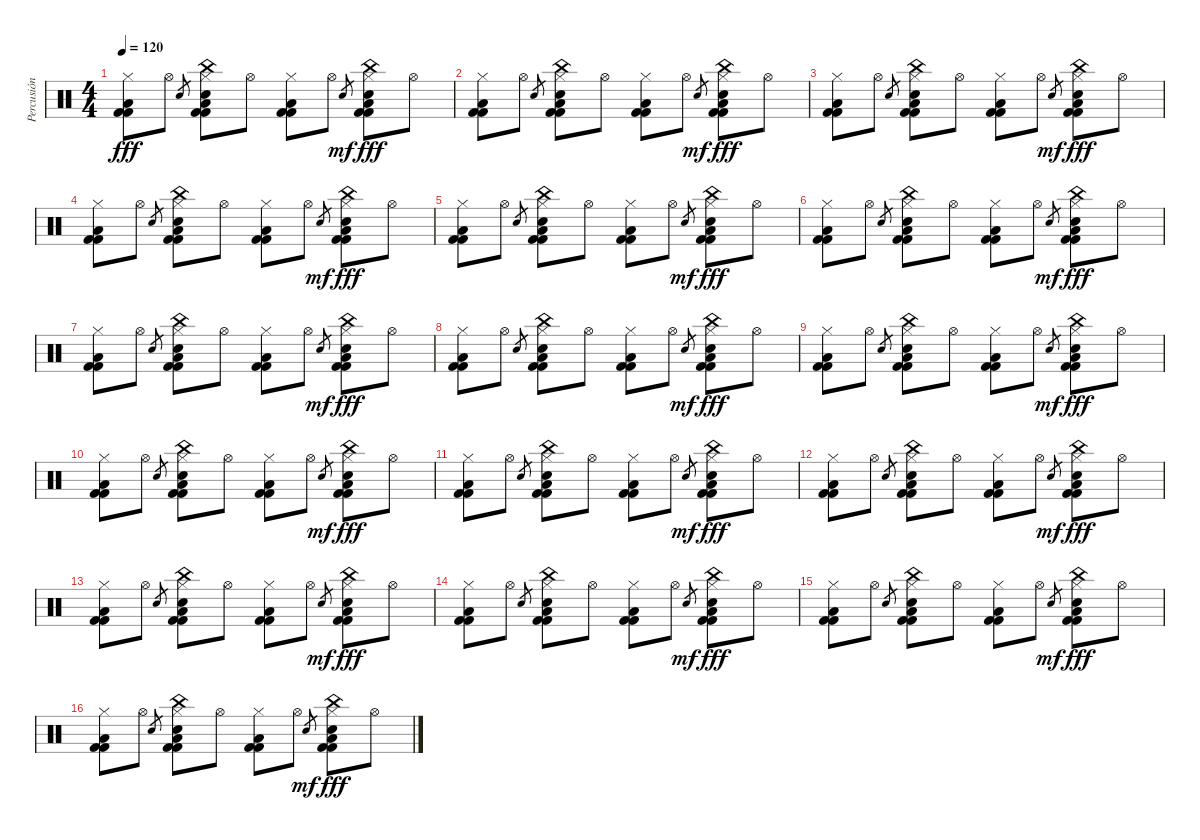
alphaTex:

\track ("Percusión II" "Percusión ") {instrument percussion}
\staff {score}
\articulation defaults
\ts (4 4)
\tempo 120
\clef neutral
\ks c
("Kick (hit) 2" "Hi-Hat (closed)" "Low Floor Tom (hit)" "Kick (hit) 2").8{dy fff} "Hi-Hat (open)".8 "Hand Clap (hit)".8{gr} ("Kick (hit) 2" "Hi-Hat (closed)" "Electric Snare (hit)" "China (hit)" "Low Floor Tom (hit)" "Kick (hit) 2").8 "Hi-Hat (open)".8 ("Kick (hit) 2" "Hi-Hat (closed)" "Low Floor Tom (hit)" "Kick (hit) 2").8 "Hi-Hat (open)".8 "Hand Clap (hit)".8{gr dy mf} ("Kick (hit) 2" "Hi-Hat (closed)" "Electric Snare (hit)" "China (hit)" "Low Floor Tom (hit)" "Kick (hit) 2").8{dy fff} "Hi-Hat (open)".8 |
("Kick (hit) 2" "Hi-Hat (closed)" "Low Floor Tom (hit)" "Kick (hit) 2").8 "Hi-Hat (open)".8 "Hand Clap (hit)".8{gr} ("Kick (hit) 2" "Hi-Hat (closed)" "Electric Snare (hit)" "China (hit)" "Low Floor Tom (hit)" "Kick (hit) 2").8 "Hi-Hat (open)".8 ("Kick (hit) 2" "Hi-Hat (closed)" "Low Floor Tom (hit)" "Kick (hit) 2").8 "Hi-Hat (open)".8 "Hand Clap (hit)".8{gr dy mf} ("Kick (hit) 2" "Hi-Hat (closed)" "Electric Snare (hit)" "China (hit)" "Low Floor Tom (hit)" "Kick (hit) 2").8{dy fff} "Hi-Hat (open)".8 |
("Kick (hit) 2" "Hi-Hat (closed)" "Low Floor Tom (hit)" "Kick (hit) 2").8 "Hi-Hat (open)".8 "Hand Clap (hit)".8{gr} ("Kick (hit) 2" "Hi-Hat (closed)" "Electric Snare (hit)" "China (hit)" "Low Floor Tom (hit)" "Kick (hit) 2").8 "Hi-Hat (open)".8 ("Kick (hit) 2" "Hi-Hat (closed)" "Low Floor Tom (hit)" "Kick (hit) 2").8 "Hi-Hat (open)".8 "Hand Clap (hit)".8{gr dy mf} ("Kick (hit) 2" "Hi-Hat (closed)" "Electric Snare (hit)" "China (hit)" "Low Floor Tom (hit)" "Kick (hit) 2").8{dy fff} "Hi-Hat (open)".8 |
("Kick (hit) 2" "Hi-Hat (closed)" "Low Floor Tom (hit)" "Kick (hit) 2").8 "Hi-Hat (open)".8 "Hand Clap (hit)".8{gr} ("Kick (hit) 2" "Hi-Hat (closed)" "Electric Snare (hit)" "China (hit)" "Low Floor Tom (hit)" "Kick (hit) 2").8 "Hi-Hat (open)".8 ("Kick (hit) 2" "Hi-Hat (closed)" "Low Floor Tom (hit)" "Kick (hit) 2").8 "Hi-Hat (open)".8 "Hand Clap (hit)".8{gr dy mf} ("Kick (hit) 2" "Hi-Hat (closed)" "Electric Snare (hit)" "China (hit)" "Low Floor Tom (hit)" "Kick (hit) 2").8{dy fff} "Hi-Hat (open)".8 |
("Kick (hit) 2" "Hi-Hat (closed)" "Low Floor Tom (hit)" "Kick (hit) 2").8 "Hi-Hat (open)".8 "Hand Clap (hit)".8{gr} ("Kick (hit) 2" "Hi-Hat (closed)" "Electric Snare (hit)" "China (hit)" "Low Floor Tom (hit)" "Kick (hit) 2").8 "Hi-Hat (open)".8 ("Kick (hit) 2" "Hi-Hat (closed)" "Low Floor Tom (hit)" "Kick (hit) 2").8 "Hi-Hat (open)".8 "Hand Clap (hit)".8{gr dy mf} ("Kick (hit) 2" "Hi-Hat (closed)" "Electric Snare (hit)" "China (hit)" "Low Floor Tom (hit)" "Kick (hit) 2").8{dy fff} "Hi-Hat (open)".8 |
("Kick (hit) 2" "Hi-Hat (closed)" "Low Floor Tom (hit)" "Kick (hit) 2").8 "Hi-Hat (open)".8 "Hand Clap (hit)".8{gr} ("Kick (hit) 2" "Hi-Hat (closed)" "Electric Snare (hit)" "China (hit)" "Low Floor Tom (hit)" "Kick (hit) 2").8 "Hi-Hat (open)".8 ("Kick (hit) 2" "Hi-Hat (closed)" "Low Floor Tom (hit)" "Kick (hit) 2").8 "Hi-Hat (open)".8 "Hand Clap (hit)".8{gr dy mf} ("Kick (hit) 2" "Hi-Hat (closed)" "Electric Snare (hit)" "China (hit)" "Low Floor Tom (hit)" "Kick (hit) 2").8{dy fff} "Hi-Hat (open)".8 |
("Kick (hit) 2" "Hi-Hat (closed)" "Low Floor Tom (hit)" "Kick (hit) 2").8 "Hi-Hat (open)".8 "Hand Clap (hit)".8{gr} ("Kick (hit) 2" "Hi-Hat (closed)" "Electric Snare (hit)" "China (hit)" "Low Floor Tom (hit)" "Kick (hit) 2").8 "Hi-Hat (open)".8 ("Kick (hit) 2" "Hi-Hat (closed)" "Low Floor Tom (hit)" "Kick (hit) 2").8 "Hi-Hat (open)".8 "Hand Clap (hit)".8{gr dy mf} ("Kick (hit) 2" "Hi-Hat (closed)" "Electric Snare (hit)" "China (hit)" "Low Floor Tom (hit)" "Kick (hit) 2").8{dy fff} "Hi-Hat (open)".8 |
("Kick (hit) 2" "Hi-Hat (closed)" "Low Floor Tom (hit)" "Kick (hit) 2").8 "Hi-Hat (open)".8 "Hand Clap (hit)".8{gr} ("Kick (hit) 2" "Hi-Hat (closed)" "Electric Snare (hit)" "China (hit)" "Low Floor Tom (hit)" "Kick (hit) 2").8 "Hi-Hat (open)".8 ("Kick (hit) 2" "Hi-Hat (closed)" "Low Floor Tom (hit)" "Kick (hit) 2").8 "Hi-Hat (open)".8 "Hand Clap (hit)".8{gr dy mf} ("Kick (hit) 2" "Hi-Hat (closed)" "Electric Snare (hit)" "China (hit)" "Low Floor Tom (hit)" "Kick (hit) 2").8{dy fff} "Hi-Hat (open)".8 |
("Kick (hit) 2" "Hi-Hat (closed)" "Low Floor Tom (hit)" "Kick (hit) 2").8 "Hi-Hat (open)".8 "Hand Clap (hit)".8{gr} ("Kick (hit) 2" "Hi-Hat (closed)" "Electric Snare (hit)" "China (hit)" "Low Floor Tom (hit)" "Kick (hit) 2").8 "Hi-Hat (open)".8 ("Kick (hit) 2" "Hi-Hat (closed)" "Low Floor Tom (hit)" "Kick (hit) 2").8 "Hi-Hat (open)".8 "Hand Clap (hit)".8{gr dy mf} ("Kick (hit) 2" "Hi-Hat (closed)" "Electric Snare (hit)" "China (hit)" "Low Floor Tom (hit)" "Kick (hit) 2").8{dy fff} "Hi-Hat (open)".8 |
("Kick (hit) 2" "Hi-Hat (closed)" "Low Floor Tom (hit)" "Kick (hit) 2").8 "Hi-Hat (open)".8 "Hand Clap (hit)".8{gr} ("Kick (hit) 2" "Hi-Hat (closed)" "Electric Snare (hit)" "China (hit)" "Low Floor Tom (hit)" "Kick (hit) 2").8 "Hi-Hat (open)".8 ("Kick (hit) 2" "Hi-Hat (closed)" "Low Floor Tom (hit)" "Kick (hit) 2").8 "Hi-Hat (open)".8 "Hand Clap (hit)".8{gr dy mf} ("Kick (hit) 2" "Hi-Hat (closed)" "Electric Snare (hit)" "China (hit)" "Low Floor Tom (hit)" "Kick (hit) 2").8{dy fff} "Hi-Hat (open)".8 |
("Kick (hit) 2" "Hi-Hat (closed)" "Low Floor Tom (hit)" "Kick (hit) 2").8 "Hi-Hat (open)".8 "Hand Clap (hit)".8{gr} ("Kick (hit) 2" "Hi-Hat (closed)" "Electric Snare (hit)" "China (hit)" "Low Floor Tom (hit)" "Kick (hit) 2").8 "Hi-Hat (open)".8 ("Kick (hit) 2" "Hi-Hat (closed)" "Low Floor Tom (hit)" "Kick (hit) 2").8 "Hi-Hat (open)".8 "Hand Clap (hit)".8{gr dy mf} ("Kick (hit) 2" "Hi-Hat (closed)" "Electric Snare (hit)" "China (hit)" "Low Floor Tom (hit)" "Kick (hit) 2").8{dy fff} "Hi-Hat (open)".8 |
("Kick (hit) 2" "Hi-Hat (closed)" "Low Floor Tom (hit)" "Kick (hit) 2").8 "Hi-Hat (open)".8 "Hand Clap (hit)".8{gr} ("Kick (hit) 2" "Hi-Hat (closed)" "Electric Snare (hit)" "China (hit)" "Low Floor Tom (hit)" "Kick (hit) 2").8 "Hi-Hat (open)".8 ("Kick (hit) 2" "Hi-Hat (closed)" "Low Floor Tom (hit)" "Kick (hit) 2").8 "Hi-Hat (open)".8 "Hand Clap (hit)".8{gr dy mf} ("Kick (hit) 2" "Hi-Hat (closed)" "Electric Snare (hit)" "China (hit)" "Low Floor Tom (hit)" "Kick (hit) 2").8{dy fff} "Hi-Hat (open)".8 |
("Kick (hit) 2" "Hi-Hat (closed)" "Low Floor Tom (hit)" "Kick (hit) 2").8 "Hi-Hat (open)".8 "Hand Clap (hit)".8{gr} ("Kick (hit) 2" "Hi-Hat (closed)" "Electric Snare (hit)" "China (hit)" "Low Floor Tom (hit)" "Kick (hit) 2").8 "Hi-Hat (open)".8 ("Kick (hit) 2" "Hi-Hat (closed)" "Low Floor Tom (hit)" "Kick (hit) 2").8 "Hi-Hat (open)".8 "Hand Clap (hit)".8{gr dy mf} ("Kick (hit) 2" "Hi-Hat (closed)" "Electric Snare (hit)" "China (hit)" "Low Floor Tom (hit)" "Kick (hit) 2").8{dy fff} "Hi-Hat (open)".8 |
("Kick (hit) 2" "Hi-Hat (closed)" "Low Floor Tom (hit)" "Kick (hit) 2").8 "Hi-Hat (open)".8 "Hand Clap (hit)".8{gr} ("Kick (hit) 2" "Hi-Hat (closed)" "Electric Snare (hit)" "China (hit)" "Low Floor Tom (hit)" "Kick (hit) 2").8 "Hi-Hat (open)".8 ("Kick (hit) 2" "Hi-Hat (closed)" "Low Floor Tom (hit)" "Kick (hit) 2").8 "Hi-Hat (open)".8 "Hand Clap (hit)".8{gr dy mf} ("Kick (hit) 2" "Hi-Hat (closed)" "Electric Snare (hit)" "China (hit)" "Low Floor Tom (hit)" "Kick (hit) 2").8{dy fff} "Hi-Hat (open)".8 |
("Kick (hit) 2" "Hi-Hat (closed)" "Low Floor Tom (hit)" "Kick (hit) 2").8 "Hi-Hat (open)".8 "Hand Clap (hit)".8{gr} ("Kick (hit) 2" "Hi-Hat (closed)" "Electric Snare (hit)" "China (hit)" "Low Floor Tom (hit)" "Kick (hit) 2").8 "Hi-Hat (open)".8 ("Kick (hit) 2" "Hi-Hat (closed)" "Low Floor Tom (hit)" "Kick (hit) 2").8 "Hi-Hat (open)".8 "Hand Clap (hit)".8{gr dy mf} ("Kick (hit) 2" "Hi-Hat (closed)" "Electric Snare (hit)" "China (hit)" "Low Floor Tom (hit)" "Kick (hit) 2").8{dy fff} "Hi-Hat (open)".8 |
("Kick (hit) 2" "Hi-Hat (closed)" "Low Floor Tom (hit)" "Kick (hit) 2").8 "Hi-Hat (open)".8 "Hand Clap (hit)".8{gr} ("Kick (hit) 2" "Hi-Hat (closed)" "Electric Snare (hit)" "China (hit)" "Low Floor Tom (hit)" "Kick (hit) 2").8 "Hi-Hat (open)".8 ("Kick (hit) 2" "Hi-Hat (closed)" "Low Floor Tom (hit)" "Kick (hit) 2").8 "Hi-Hat (open)".8 "Hand Clap (hit)".8{gr dy mf} ("Kick (hit) 2" "Hi-Hat (closed)" "Electric Snare (hit)" "China (hit)" "Low Floor Tom (hit)" "Kick (hit) 2").8{dy fff} "Hi-Hat (open)".8
